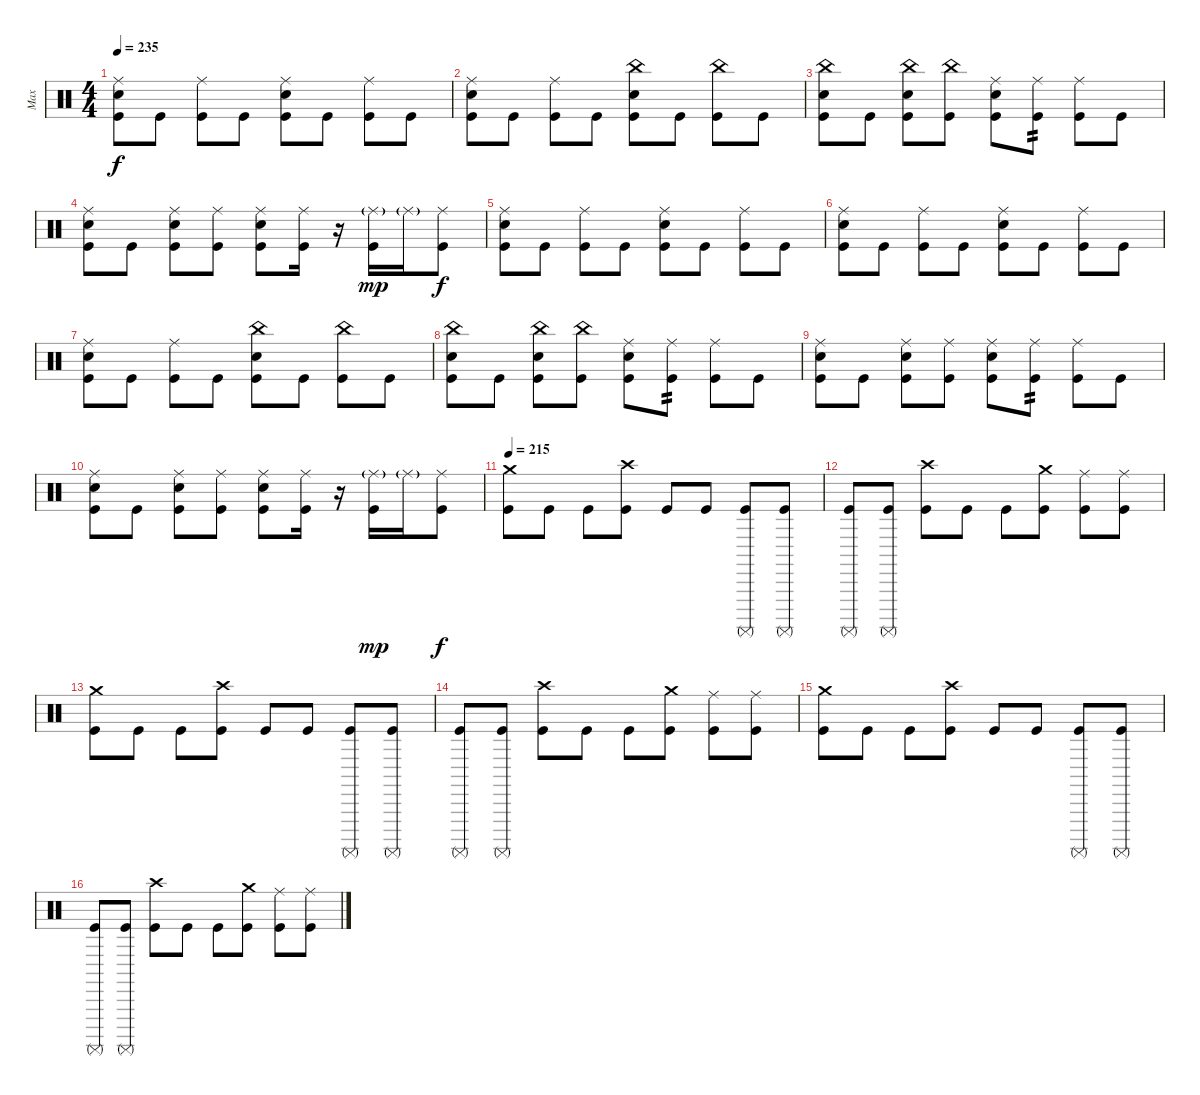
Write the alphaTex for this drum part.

\track ("Max" "Max") {instrument percussion}
\staff {score}
\articulation defaults
\ts (4 4)
\tempo 235
\clef neutral
\ks c
("Ride (middle)" "Electric Snare (hit)" "Kick (hit)").8{dy f} "Kick (hit)".8 ("Ride (middle)" "Kick (hit)").8 "Kick (hit)".8 ("Ride (middle)" "Electric Snare (hit)" "Kick (hit)").8 "Kick (hit)".8 ("Ride (middle)" "Kick (hit)").8 "Kick (hit)".8 |
("Ride (middle)" "Electric Snare (hit)" "Kick (hit)").8 "Kick (hit)".8 ("Ride (middle)" "Kick (hit)").8 "Kick (hit)".8 ("China (hit)" "Electric Snare (hit)" "Kick (hit)").8 "Kick (hit)".8 ("China (hit)" "Kick (hit)").8 "Kick (hit)".8 |
("China (hit)" "Electric Snare (hit)" "Kick (hit)").8 "Kick (hit)".8 ("China (hit)" "Electric Snare (hit)" "Kick (hit)").8 ("China (hit)" "Kick (hit)").8 ("Ride (middle)" "Electric Snare (hit)" "Kick (hit)").8 ("Ride (middle)" "Kick (hit)").8{tp 2} ("Ride (middle)" "Kick (hit)").8 "Kick (hit)".8 |
("Ride (middle)" "Electric Snare (hit)" "Kick (hit)").8 "Kick (hit)".8 ("Ride (middle)" "Electric Snare (hit)" "Kick (hit)").8 ("Ride (middle)" "Kick (hit)").8 ("Ride (middle)" "Electric Snare (hit)" "Kick (hit)").8 ("Ride (middle)" "Kick (hit)").16 r.16 ("Ride (middle)"{g} "Kick (hit)").16{dy mp} "Ride (middle)"{g}.16 ("Ride (middle)" "Kick (hit)").8{dy f} |
("Ride (middle)" "Electric Snare (hit)" "Kick (hit)").8 "Kick (hit)".8 ("Ride (middle)" "Kick (hit)").8 "Kick (hit)".8 ("Ride (middle)" "Electric Snare (hit)" "Kick (hit)").8 "Kick (hit)".8 ("Ride (middle)" "Kick (hit)").8 "Kick (hit)".8 |
("Ride (middle)" "Electric Snare (hit)" "Kick (hit)").8 "Kick (hit)".8 ("Ride (middle)" "Kick (hit)").8 "Kick (hit)".8 ("Ride (middle)" "Electric Snare (hit)" "Kick (hit)").8 "Kick (hit)".8 ("Ride (middle)" "Kick (hit)").8 "Kick (hit)".8 |
("Ride (middle)" "Electric Snare (hit)" "Kick (hit)").8 "Kick (hit)".8 ("Ride (middle)" "Kick (hit)").8 "Kick (hit)".8 ("China (hit)" "Electric Snare (hit)" "Kick (hit)").8 "Kick (hit)".8 ("China (hit)" "Kick (hit)").8 "Kick (hit)".8 |
("China (hit)" "Electric Snare (hit)" "Kick (hit)").8 "Kick (hit)".8 ("China (hit)" "Electric Snare (hit)" "Kick (hit)").8 ("China (hit)" "Kick (hit)").8 ("Ride (middle)" "Electric Snare (hit)" "Kick (hit)").8 ("Ride (middle)" "Kick (hit)").8{tp 2} ("Ride (middle)" "Kick (hit)").8 "Kick (hit)".8 |
("Ride (middle)" "Electric Snare (hit)" "Kick (hit)").8 "Kick (hit)".8 ("Ride (middle)" "Electric Snare (hit)" "Kick (hit)").8 ("Ride (middle)" "Kick (hit)").8 ("Ride (middle)" "Electric Snare (hit)" "Kick (hit)").8 ("Ride (middle)" "Kick (hit)").8{tp 2} ("Ride (middle)" "Kick (hit)").8 "Kick (hit)".8 |
("Ride (middle)" "Electric Snare (hit)" "Kick (hit)").8 "Kick (hit)".8 ("Ride (middle)" "Electric Snare (hit)" "Kick (hit)").8 ("Ride (middle)" "Kick (hit)").8 ("Ride (middle)" "Electric Snare (hit)" "Kick (hit)").8 ("Ride (middle)" "Kick (hit)").16 r.16 ("Ride (middle)"{g} "Kick (hit)").16{dy mp} "Ride (middle)"{g}.16 ("Ride (middle)" "Kick (hit)").8{dy f} |
\tempo 215
("Crash medium (hit)" "Kick (hit)").8 "Kick (hit)".8 "Kick (hit)".8 ("Crash high (hit)" "Kick (hit)").8 "Kick (hit)".8 "Kick (hit)".8 ("Surdo (mute)" "Kick (hit)").8 ("Surdo (mute)" "Kick (hit)").8 |
("Surdo (mute)" "Kick (hit)").8 ("Surdo (mute)" "Kick (hit)").8 ("Crash high (hit)" "Kick (hit)").8 "Kick (hit)".8 "Kick (hit)".8 ("Crash medium (hit)" "Kick (hit)").8 ("Ride (middle)" "Kick (hit)").8 ("Ride (middle)" "Kick (hit)").8 |
("Crash medium (hit)" "Kick (hit)").8 "Kick (hit)".8 "Kick (hit)".8 ("Crash high (hit)" "Kick (hit)").8 "Kick (hit)".8 "Kick (hit)".8 ("Surdo (mute)" "Kick (hit)").8 ("Surdo (mute)" "Kick (hit)").8 |
("Surdo (mute)" "Kick (hit)").8 ("Surdo (mute)" "Kick (hit)").8 ("Crash high (hit)" "Kick (hit)").8 "Kick (hit)".8 "Kick (hit)".8 ("Crash medium (hit)" "Kick (hit)").8 ("Ride (middle)" "Kick (hit)").8 ("Ride (middle)" "Kick (hit)").8 |
("Crash medium (hit)" "Kick (hit)").8 "Kick (hit)".8 "Kick (hit)".8 ("Crash high (hit)" "Kick (hit)").8 "Kick (hit)".8 "Kick (hit)".8 ("Surdo (mute)" "Kick (hit)").8 ("Surdo (mute)" "Kick (hit)").8 |
("Surdo (mute)" "Kick (hit)").8 ("Surdo (mute)" "Kick (hit)").8 ("Crash high (hit)" "Kick (hit)").8 "Kick (hit)".8 "Kick (hit)".8 ("Crash medium (hit)" "Kick (hit)").8 ("Ride (middle)" "Kick (hit)").8 ("Ride (middle)" "Kick (hit)").8
